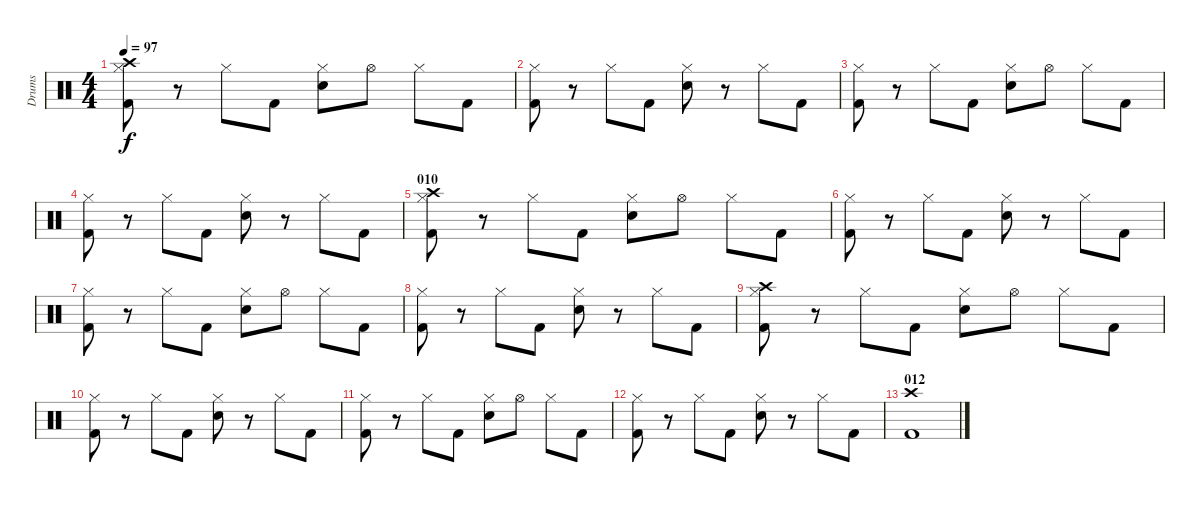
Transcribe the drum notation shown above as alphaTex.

\track ("Drums" "Drums") {instrument percussion}
\staff {score}
\articulation defaults
\ts (4 4)
\tempo 97
\clef neutral
\ks c
("Kick (hit) 2" "Crash high (hit)" "Hi-Hat (closed)").8{dy f} r.8 "Hi-Hat (closed)".8 "Kick (hit) 2".8 ("Electric Snare (hit)" "Hi-Hat (closed)").8 "Hi-Hat (open)".8 "Hi-Hat (closed)".8 "Kick (hit) 2".8 |
("Kick (hit) 2" "Hi-Hat (closed)").8 r.8 "Hi-Hat (closed)".8 "Kick (hit) 2".8 ("Electric Snare (hit)" "Hi-Hat (closed)").8 r.8 "Hi-Hat (closed)".8 "Kick (hit) 2".8 |
("Kick (hit) 2" "Hi-Hat (closed)").8 r.8 "Hi-Hat (closed)".8 "Kick (hit) 2".8 ("Electric Snare (hit)" "Hi-Hat (closed)").8 "Hi-Hat (open)".8 "Hi-Hat (closed)".8 "Kick (hit) 2".8 |
("Kick (hit) 2" "Hi-Hat (closed)").8 r.8 "Hi-Hat (closed)".8 "Kick (hit) 2".8 ("Electric Snare (hit)" "Hi-Hat (closed)").8 r.8 "Hi-Hat (closed)".8 "Kick (hit) 2".8 |
\section ("" "010")
("Kick (hit) 2" "Crash high (hit)" "Hi-Hat (closed)").8 r.8 "Hi-Hat (closed)".8 "Kick (hit) 2".8 ("Electric Snare (hit)" "Hi-Hat (closed)").8 "Hi-Hat (open)".8 "Hi-Hat (closed)".8 "Kick (hit) 2".8 |
("Kick (hit) 2" "Hi-Hat (closed)").8 r.8 "Hi-Hat (closed)".8 "Kick (hit) 2".8 ("Electric Snare (hit)" "Hi-Hat (closed)").8 r.8 "Hi-Hat (closed)".8 "Kick (hit) 2".8 |
("Kick (hit) 2" "Hi-Hat (closed)").8 r.8 "Hi-Hat (closed)".8 "Kick (hit) 2".8 ("Electric Snare (hit)" "Hi-Hat (closed)").8 "Hi-Hat (open)".8 "Hi-Hat (closed)".8 "Kick (hit) 2".8 |
("Kick (hit) 2" "Hi-Hat (closed)").8 r.8 "Hi-Hat (closed)".8 "Kick (hit) 2".8 ("Electric Snare (hit)" "Hi-Hat (closed)").8 r.8 "Hi-Hat (closed)".8 "Kick (hit) 2".8 |
("Kick (hit) 2" "Crash high (hit)" "Hi-Hat (closed)").8 r.8 "Hi-Hat (closed)".8 "Kick (hit) 2".8 ("Electric Snare (hit)" "Hi-Hat (closed)").8 "Hi-Hat (open)".8 "Hi-Hat (closed)".8 "Kick (hit) 2".8 |
("Kick (hit) 2" "Hi-Hat (closed)").8 r.8 "Hi-Hat (closed)".8 "Kick (hit) 2".8 ("Electric Snare (hit)" "Hi-Hat (closed)").8 r.8 "Hi-Hat (closed)".8 "Kick (hit) 2".8 |
("Kick (hit) 2" "Hi-Hat (closed)").8 r.8 "Hi-Hat (closed)".8 "Kick (hit) 2".8 ("Electric Snare (hit)" "Hi-Hat (closed)").8 "Hi-Hat (open)".8 "Hi-Hat (closed)".8 "Kick (hit) 2".8 |
("Kick (hit) 2" "Hi-Hat (closed)").8 r.8 "Hi-Hat (closed)".8 "Kick (hit) 2".8 ("Electric Snare (hit)" "Hi-Hat (closed)").8 r.8 "Hi-Hat (closed)".8 "Kick (hit) 2".8 |
\section ("" "012")
("Crash high (hit)" "Kick (hit) 2").1
